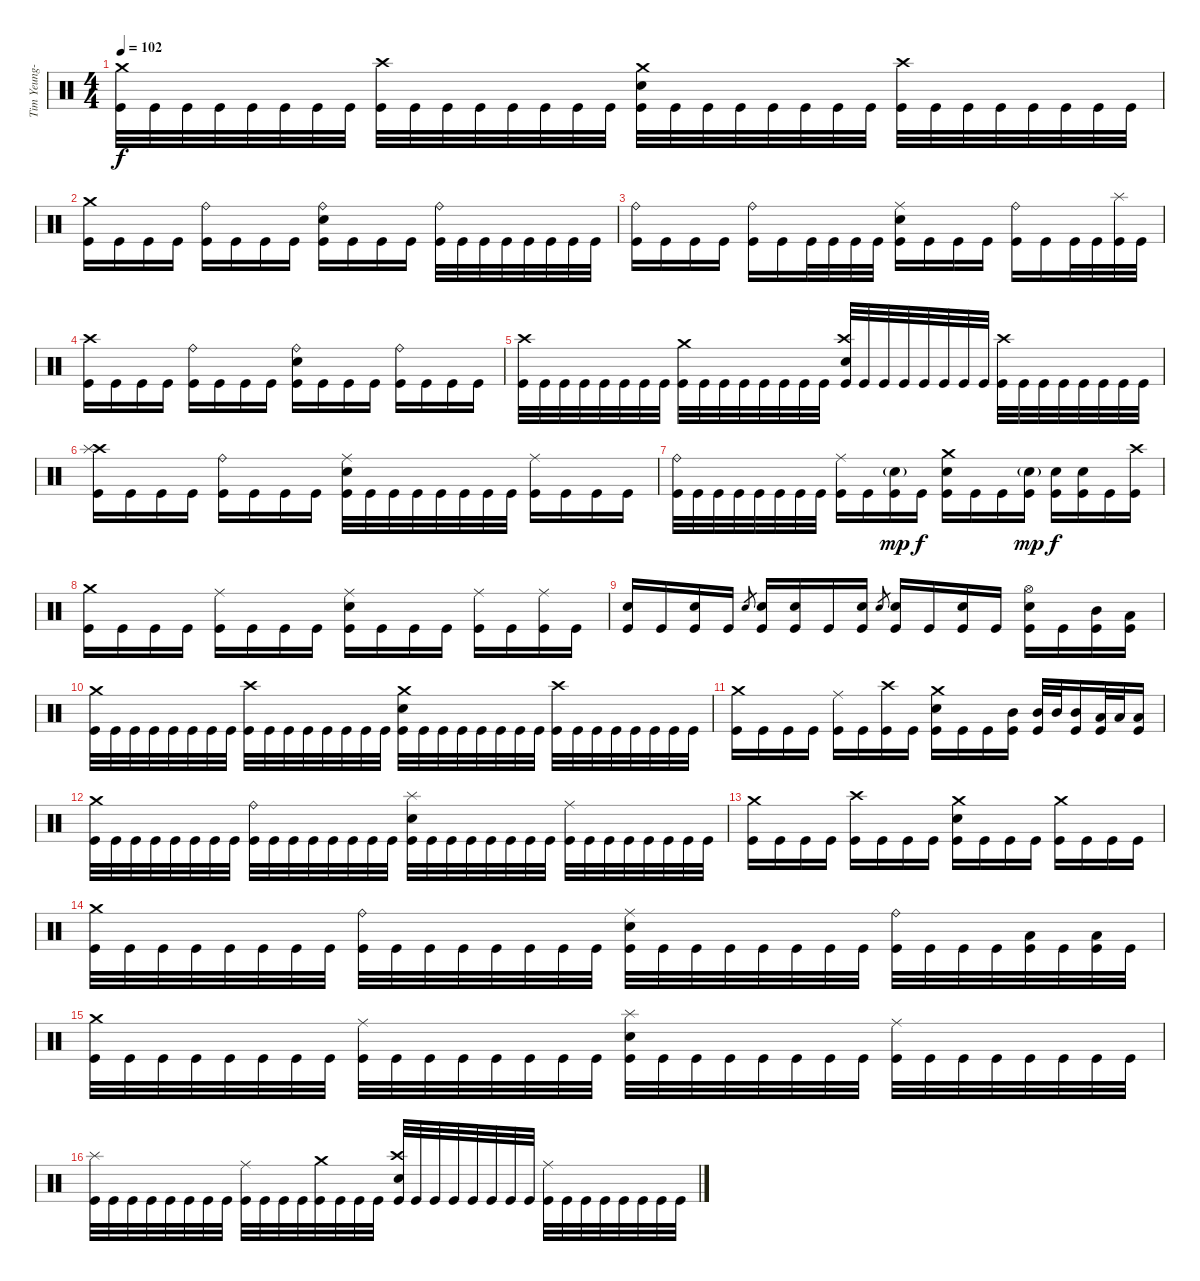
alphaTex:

\track ("Tim Yeung-Drums" "Tim Yeung-") {instrument percussion}
\staff {score}
\articulation defaults
\ts (4 4)
\tempo 102
\clef neutral
\ks c
("Crash medium (hit)" "Kick (hit)").32{dy f} "Kick (hit)".32 "Kick (hit)".32 "Kick (hit)".32 "Kick (hit)".32 "Kick (hit)".32 "Kick (hit)".32 "Kick (hit)".32 ("Crash high (hit)" "Kick (hit)").32 "Kick (hit)".32 "Kick (hit)".32 "Kick (hit)".32 "Kick (hit)".32 "Kick (hit)".32 "Kick (hit)".32 "Kick (hit)".32 ("Crash medium (hit)" "Electric Snare (hit)" "Kick (hit)").32 "Kick (hit)".32 "Kick (hit)".32 "Kick (hit)".32 "Kick (hit)".32 "Kick (hit)".32 "Kick (hit)".32 "Kick (hit)".32 ("Crash high (hit)" "Kick (hit)").32 "Kick (hit)".32 "Kick (hit)".32 "Kick (hit)".32 "Kick (hit)".32 "Kick (hit)".32 "Kick (hit)".32 "Kick (hit)".32 |
("Crash medium (hit)" "Kick (hit)").16 "Kick (hit)".16 "Kick (hit)".16 "Kick (hit)".16 ("Ride (bell)" "Kick (hit)").16 "Kick (hit)".16 "Kick (hit)".16 "Kick (hit)".16 ("Ride (bell)" "Electric Snare (hit)" "Kick (hit)").16 "Kick (hit)".16 "Kick (hit)".16 "Kick (hit)".16 ("Ride (bell)" "Kick (hit)").32 "Kick (hit)".32 "Kick (hit)".32 "Kick (hit)".32 "Kick (hit)".32 "Kick (hit)".32 "Kick (hit)".32 "Kick (hit)".32 |
("Ride (bell)" "Kick (hit)").16 "Kick (hit)".16 "Kick (hit)".16 "Kick (hit)".16 ("Ride (bell)" "Kick (hit)").16 "Kick (hit)".16 "Kick (hit)".32 "Kick (hit)".32 "Kick (hit)".32 "Kick (hit)".32 ("Ride (middle)" "Electric Snare (hit)" "Kick (hit)").16 "Kick (hit)".16 "Kick (hit)".16 "Kick (hit)".16 ("Ride (bell)" "Kick (hit)").16 "Kick (hit)".16 "Kick (hit)".32 "Kick (hit)".32 ("Splash (hit)" "Kick (hit)").32 "Kick (hit)".32 |
("Crash high (hit)" "Kick (hit)").16 "Kick (hit)".16 "Kick (hit)".16 "Kick (hit)".16 ("Ride (bell)" "Kick (hit)").16 "Kick (hit)".16 "Kick (hit)".16 "Kick (hit)".16 ("Ride (bell)" "Electric Snare (hit)" "Kick (hit)").16 "Kick (hit)".16 "Kick (hit)".16 "Kick (hit)".16 ("Ride (bell)" "Kick (hit)").16 "Kick (hit)".16 "Kick (hit)".16 "Kick (hit)".16 |
("Crash high (hit)" "Kick (hit)").32 "Kick (hit)".32 "Kick (hit)".32 "Kick (hit)".32 "Kick (hit)".32 "Kick (hit)".32 "Kick (hit)".32 "Kick (hit)".32 ("Crash medium (hit)" "Kick (hit)").32 "Kick (hit)".32 "Kick (hit)".32 "Kick (hit)".32 "Kick (hit)".32 "Kick (hit)".32 "Kick (hit)".32 "Kick (hit)".32 ("Crash high (hit)" "Electric Snare (hit)" "Kick (hit)").32 "Kick (hit)".32 "Kick (hit)".32 "Kick (hit)".32 "Kick (hit)".32 "Kick (hit)".32 "Kick (hit)".32 "Kick (hit)".32 ("Crash high (hit)" "Kick (hit)").32 "Kick (hit)".32 "Kick (hit)".32 "Kick (hit)".32 "Kick (hit)".32 "Kick (hit)".32 "Kick (hit)".32 "Kick (hit)".32 |
("Crash high (hit)" "Splash (hit)" "Kick (hit)").16 "Kick (hit)".16 "Kick (hit)".16 "Kick (hit)".16 ("Ride (bell)" "Kick (hit)").16 "Kick (hit)".16 "Kick (hit)".16 "Kick (hit)".16 ("Ride (middle)" "Electric Snare (hit)" "Kick (hit)").32 "Kick (hit)".32 "Kick (hit)".32 "Kick (hit)".32 "Kick (hit)".32 "Kick (hit)".32 "Kick (hit)".32 "Kick (hit)".32 ("Ride (middle)" "Kick (hit)").16 "Kick (hit)".16 "Kick (hit)".16 "Kick (hit)".16 |
("Ride (bell)" "Kick (hit)").32 "Kick (hit)".32 "Kick (hit)".32 "Kick (hit)".32 "Kick (hit)".32 "Kick (hit)".32 "Kick (hit)".32 "Kick (hit)".32 ("Ride (middle)" "Kick (hit)").16 "Kick (hit)".16 ("Electric Snare (hit)"{g} "Kick (hit)").16{dy mp} "Kick (hit)".16{dy f} ("Crash medium (hit)" "Electric Snare (hit)" "Kick (hit)").16 "Kick (hit)".16 "Kick (hit)".16 ("Electric Snare (hit)"{g} "Kick (hit)").16{dy mp} ("Electric Snare (hit)" "Kick (hit)").16{dy f} ("Electric Snare (hit)" "Kick (hit)").16 "Kick (hit)".16 ("Crash high (hit)" "Kick (hit)").16 |
("Crash medium (hit)" "Kick (hit)").16 "Kick (hit)".16 "Kick (hit)".16 "Kick (hit)".16 ("Ride (middle)" "Kick (hit)").16 "Kick (hit)".16 "Kick (hit)".16 "Kick (hit)".16 ("Ride (middle)" "Electric Snare (hit)" "Kick (hit)").16 "Kick (hit)".16 "Kick (hit)".16 "Kick (hit)".16 ("Ride (middle)" "Kick (hit)").16 "Kick (hit)".16 ("Ride (middle)" "Kick (hit)").16 "Kick (hit)".16 |
("Electric Snare (hit)" "Kick (hit)").16 "Kick (hit)".16 ("Electric Snare (hit)" "Kick (hit)").16 "Kick (hit)".16 "Electric Snare (hit)".8{gr} ("Electric Snare (hit)" "Kick (hit)").16 ("Electric Snare (hit)" "Kick (hit)").16 "Kick (hit)".16 ("Electric Snare (hit)" "Kick (hit)").16 "Electric Snare (hit)".8{gr} ("Electric Snare (hit)" "Kick (hit)").16 "Kick (hit)".16 ("Electric Snare (hit)" "Kick (hit)").16 "Kick (hit)".16 ("Hi-Hat (open)" "Electric Snare (hit)" "Kick (hit)").16 "Kick (hit)".16 ("Mid Tom (hit)" "Kick (hit)").16 ("Low Tom (hit)" "Kick (hit)").16 |
("Crash medium (hit)" "Kick (hit)").32 "Kick (hit)".32 "Kick (hit)".32 "Kick (hit)".32 "Kick (hit)".32 "Kick (hit)".32 "Kick (hit)".32 "Kick (hit)".32 ("Crash high (hit)" "Kick (hit)").32 "Kick (hit)".32 "Kick (hit)".32 "Kick (hit)".32 "Kick (hit)".32 "Kick (hit)".32 "Kick (hit)".32 "Kick (hit)".32 ("Crash medium (hit)" "Electric Snare (hit)" "Kick (hit)").32 "Kick (hit)".32 "Kick (hit)".32 "Kick (hit)".32 "Kick (hit)".32 "Kick (hit)".32 "Kick (hit)".32 "Kick (hit)".32 ("Crash high (hit)" "Kick (hit)").32 "Kick (hit)".32 "Kick (hit)".32 "Kick (hit)".32 "Kick (hit)".32 "Kick (hit)".32 "Kick (hit)".32 "Kick (hit)".32 |
("Crash medium (hit)" "Kick (hit)").16 "Kick (hit)".16 "Kick (hit)".16 "Kick (hit)".16 ("Ride (middle)" "Kick (hit)").16 "Kick (hit)".16 ("Crash high (hit)" "Kick (hit)").16 "Kick (hit)".16 ("Crash medium (hit)" "Electric Snare (hit)" "Kick (hit)").16 "Kick (hit)".16 "Kick (hit)".16 ("Mid Tom (hit)" "Kick (hit)").16 ("Mid Tom (hit)" "Kick (hit)").32 "Mid Tom (hit)".32 ("Mid Tom (hit)" "Kick (hit)").16 ("Low Tom (hit)" "Kick (hit)").32 "Low Tom (hit)".32 ("Low Tom (hit)" "Kick (hit)").16 |
("Crash medium (hit)" "Kick (hit)").32 "Kick (hit)".32 "Kick (hit)".32 "Kick (hit)".32 "Kick (hit)".32 "Kick (hit)".32 "Kick (hit)".32 "Kick (hit)".32 ("Ride (bell)" "Kick (hit)").32 "Kick (hit)".32 "Kick (hit)".32 "Kick (hit)".32 "Kick (hit)".32 "Kick (hit)".32 "Kick (hit)".32 "Kick (hit)".32 ("Splash (hit)" "Electric Snare (hit)" "Kick (hit)").32 "Kick (hit)".32 "Kick (hit)".32 "Kick (hit)".32 "Kick (hit)".32 "Kick (hit)".32 "Kick (hit)".32 "Kick (hit)".32 ("Ride (middle)" "Kick (hit)").32 "Kick (hit)".32 "Kick (hit)".32 "Kick (hit)".32 "Kick (hit)".32 "Kick (hit)".32 "Kick (hit)".32 "Kick (hit)".32 |
("Crash medium (hit)" "Kick (hit)").16 "Kick (hit)".16 "Kick (hit)".16 "Kick (hit)".16 ("Crash high (hit)" "Kick (hit)").16 "Kick (hit)".16 "Kick (hit)".16 "Kick (hit)".16 ("Crash medium (hit)" "Electric Snare (hit)" "Kick (hit)").16 "Kick (hit)".16 "Kick (hit)".16 "Kick (hit)".16 ("Crash medium (hit)" "Kick (hit)").16 "Kick (hit)".16 "Kick (hit)".16 "Kick (hit)".16 |
("Crash medium (hit)" "Kick (hit)").32 "Kick (hit)".32 "Kick (hit)".32 "Kick (hit)".32 "Kick (hit)".32 "Kick (hit)".32 "Kick (hit)".32 "Kick (hit)".32 ("Ride (bell)" "Kick (hit)").32 "Kick (hit)".32 "Kick (hit)".32 "Kick (hit)".32 "Kick (hit)".32 "Kick (hit)".32 "Kick (hit)".32 "Kick (hit)".32 ("Ride (middle)" "Electric Snare (hit)" "Kick (hit)").32 "Kick (hit)".32 "Kick (hit)".32 "Kick (hit)".32 "Kick (hit)".32 "Kick (hit)".32 "Kick (hit)".32 "Kick (hit)".32 ("Ride (bell)" "Kick (hit)").32 "Kick (hit)".32 "Kick (hit)".32 "Kick (hit)".32 ("Low Tom (hit)" "Kick (hit)").32 "Kick (hit)".32 ("Low Tom (hit)" "Kick (hit)").32 "Kick (hit)".32 |
("Crash medium (hit)" "Kick (hit)").32 "Kick (hit)".32 "Kick (hit)".32 "Kick (hit)".32 "Kick (hit)".32 "Kick (hit)".32 "Kick (hit)".32 "Kick (hit)".32 ("Ride (middle)" "Kick (hit)").32 "Kick (hit)".32 "Kick (hit)".32 "Kick (hit)".32 "Kick (hit)".32 "Kick (hit)".32 "Kick (hit)".32 "Kick (hit)".32 ("Splash (hit)" "Electric Snare (hit)" "Kick (hit)").32 "Kick (hit)".32 "Kick (hit)".32 "Kick (hit)".32 "Kick (hit)".32 "Kick (hit)".32 "Kick (hit)".32 "Kick (hit)".32 ("Ride (middle)" "Kick (hit)").32 "Kick (hit)".32 "Kick (hit)".32 "Kick (hit)".32 "Kick (hit)".32 "Kick (hit)".32 "Kick (hit)".32 "Kick (hit)".32 |
("Splash (hit)" "Kick (hit)").32 "Kick (hit)".32 "Kick (hit)".32 "Kick (hit)".32 "Kick (hit)".32 "Kick (hit)".32 "Kick (hit)".32 "Kick (hit)".32 ("Ride (middle)" "Kick (hit)").32 "Kick (hit)".32 "Kick (hit)".32 "Kick (hit)".32 ("Crash medium (hit)" "Kick (hit)").32 "Kick (hit)".32 "Kick (hit)".32 "Kick (hit)".32 ("Crash high (hit)" "Electric Snare (hit)" "Kick (hit)").32 "Kick (hit)".32 "Kick (hit)".32 "Kick (hit)".32 "Kick (hit)".32 "Kick (hit)".32 "Kick (hit)".32 "Kick (hit)".32 ("Ride (middle)" "Kick (hit)").32 "Kick (hit)".32 "Kick (hit)".32 "Kick (hit)".32 "Kick (hit)".32 "Kick (hit)".32 "Kick (hit)".32 "Kick (hit)".32
